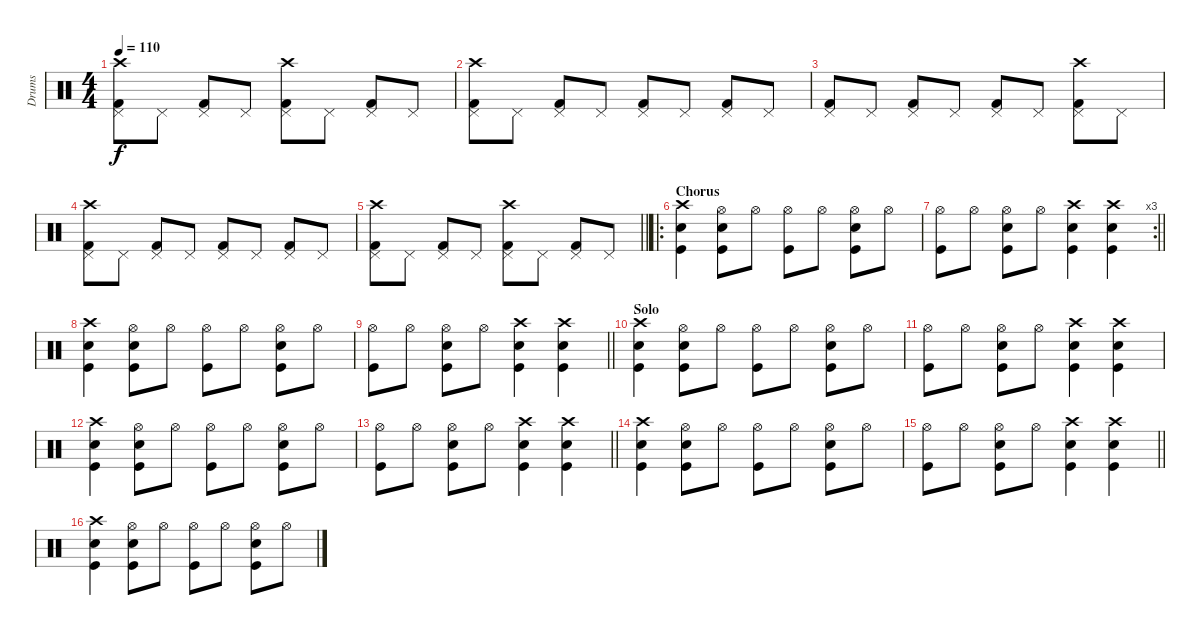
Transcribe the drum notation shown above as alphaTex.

\track ("Drums" "Drums") {instrument percussion}
\staff {score}
\articulation defaults
\ts (4 4)
\tempo 110
\clef neutral
\ks c
("Crash high (hit)" "Pedal Hi-Hat (hit)" "Kick (hit) 2").8{dy f} "Pedal Hi-Hat (hit)".8 ("Pedal Hi-Hat (hit)" "Kick (hit) 2").8 "Pedal Hi-Hat (hit)".8 ("Crash high (hit)" "Pedal Hi-Hat (hit)" "Kick (hit) 2").8 "Pedal Hi-Hat (hit)".8 ("Pedal Hi-Hat (hit)" "Kick (hit) 2").8 "Pedal Hi-Hat (hit)".8 |
("Crash high (hit)" "Pedal Hi-Hat (hit)" "Kick (hit) 2").8 "Pedal Hi-Hat (hit)".8 ("Pedal Hi-Hat (hit)" "Kick (hit) 2").8 "Pedal Hi-Hat (hit)".8 ("Pedal Hi-Hat (hit)" "Kick (hit) 2").8 "Pedal Hi-Hat (hit)".8 ("Pedal Hi-Hat (hit)" "Kick (hit) 2").8 "Pedal Hi-Hat (hit)".8 |
("Pedal Hi-Hat (hit)" "Kick (hit) 2").8 "Pedal Hi-Hat (hit)".8 ("Pedal Hi-Hat (hit)" "Kick (hit) 2").8 "Pedal Hi-Hat (hit)".8 ("Pedal Hi-Hat (hit)" "Kick (hit) 2").8 "Pedal Hi-Hat (hit)".8 ("Crash high (hit)" "Pedal Hi-Hat (hit)" "Kick (hit) 2").8 "Pedal Hi-Hat (hit)".8 |
("Crash high (hit)" "Pedal Hi-Hat (hit)" "Kick (hit) 2").8 "Pedal Hi-Hat (hit)".8 ("Pedal Hi-Hat (hit)" "Kick (hit) 2").8 "Pedal Hi-Hat (hit)".8 ("Pedal Hi-Hat (hit)" "Kick (hit) 2").8 "Pedal Hi-Hat (hit)".8 ("Pedal Hi-Hat (hit)" "Kick (hit) 2").8 "Pedal Hi-Hat (hit)".8 |
\barLineRight lightlight
("Crash high (hit)" "Pedal Hi-Hat (hit)" "Kick (hit) 2").8 "Pedal Hi-Hat (hit)".8 ("Pedal Hi-Hat (hit)" "Kick (hit) 2").8 "Pedal Hi-Hat (hit)".8 ("Crash high (hit)" "Pedal Hi-Hat (hit)" "Kick (hit) 2").8 "Pedal Hi-Hat (hit)".8 ("Pedal Hi-Hat (hit)" "Kick (hit) 2").8 "Pedal Hi-Hat (hit)".8 |
\ro
\section ("" "Chorus")
("Crash high (hit)" "Snare (hit) 2" "Kick (hit)").4 ("Hi-Hat (open)" "Snare (hit) 2" "Kick (hit)").8 "Hi-Hat (open)".8 ("Hi-Hat (open)" "Kick (hit)").8 "Hi-Hat (open)".8 ("Hi-Hat (open)" "Snare (hit) 2" "Kick (hit)").8 "Hi-Hat (open)".8 |
\rc 3
\barLineRight lightlight
("Hi-Hat (open)" "Kick (hit)").8 "Hi-Hat (open)".8 ("Hi-Hat (open)" "Snare (hit) 2" "Kick (hit)").8 "Hi-Hat (open)".8 ("Crash high (hit)" "Snare (hit) 2" "Kick (hit)").4 ("Crash high (hit)" "Snare (hit) 2" "Kick (hit)").4 |
("Crash high (hit)" "Snare (hit) 2" "Kick (hit)").4 ("Hi-Hat (open)" "Snare (hit) 2" "Kick (hit)").8 "Hi-Hat (open)".8 ("Hi-Hat (open)" "Kick (hit)").8 "Hi-Hat (open)".8 ("Hi-Hat (open)" "Snare (hit) 2" "Kick (hit)").8 "Hi-Hat (open)".8 |
\barLineRight lightlight
("Hi-Hat (open)" "Kick (hit)").8 "Hi-Hat (open)".8 ("Hi-Hat (open)" "Snare (hit) 2" "Kick (hit)").8 "Hi-Hat (open)".8 ("Crash high (hit)" "Snare (hit) 2" "Kick (hit)").4 ("Crash high (hit)" "Snare (hit) 2" "Kick (hit)").4 |
\section ("" "Solo")
("Crash high (hit)" "Snare (hit) 2" "Kick (hit)").4 ("Hi-Hat (open)" "Snare (hit) 2" "Kick (hit)").8 "Hi-Hat (open)".8 ("Hi-Hat (open)" "Kick (hit)").8 "Hi-Hat (open)".8 ("Hi-Hat (open)" "Snare (hit) 2" "Kick (hit)").8 "Hi-Hat (open)".8 |
("Hi-Hat (open)" "Kick (hit)").8 "Hi-Hat (open)".8 ("Hi-Hat (open)" "Snare (hit) 2" "Kick (hit)").8 "Hi-Hat (open)".8 ("Crash high (hit)" "Snare (hit) 2" "Kick (hit)").4 ("Crash high (hit)" "Snare (hit) 2" "Kick (hit)").4 |
("Crash high (hit)" "Snare (hit) 2" "Kick (hit)").4 ("Hi-Hat (open)" "Snare (hit) 2" "Kick (hit)").8 "Hi-Hat (open)".8 ("Hi-Hat (open)" "Kick (hit)").8 "Hi-Hat (open)".8 ("Hi-Hat (open)" "Snare (hit) 2" "Kick (hit)").8 "Hi-Hat (open)".8 |
\barLineRight lightlight
("Hi-Hat (open)" "Kick (hit)").8 "Hi-Hat (open)".8 ("Hi-Hat (open)" "Snare (hit) 2" "Kick (hit)").8 "Hi-Hat (open)".8 ("Crash high (hit)" "Snare (hit) 2" "Kick (hit)").4 ("Crash high (hit)" "Snare (hit) 2" "Kick (hit)").4 |
("Crash high (hit)" "Snare (hit) 2" "Kick (hit)").4 ("Hi-Hat (open)" "Snare (hit) 2" "Kick (hit)").8 "Hi-Hat (open)".8 ("Hi-Hat (open)" "Kick (hit)").8 "Hi-Hat (open)".8 ("Hi-Hat (open)" "Snare (hit) 2" "Kick (hit)").8 "Hi-Hat (open)".8 |
\barLineRight lightlight
("Hi-Hat (open)" "Kick (hit)").8 "Hi-Hat (open)".8 ("Hi-Hat (open)" "Snare (hit) 2" "Kick (hit)").8 "Hi-Hat (open)".8 ("Crash high (hit)" "Snare (hit) 2" "Kick (hit)").4 ("Crash high (hit)" "Snare (hit) 2" "Kick (hit)").4 |
("Crash high (hit)" "Snare (hit) 2" "Kick (hit)").4 ("Hi-Hat (open)" "Snare (hit) 2" "Kick (hit)").8 "Hi-Hat (open)".8 ("Hi-Hat (open)" "Kick (hit)").8 "Hi-Hat (open)".8 ("Hi-Hat (open)" "Snare (hit) 2" "Kick (hit)").8 "Hi-Hat (open)".8
